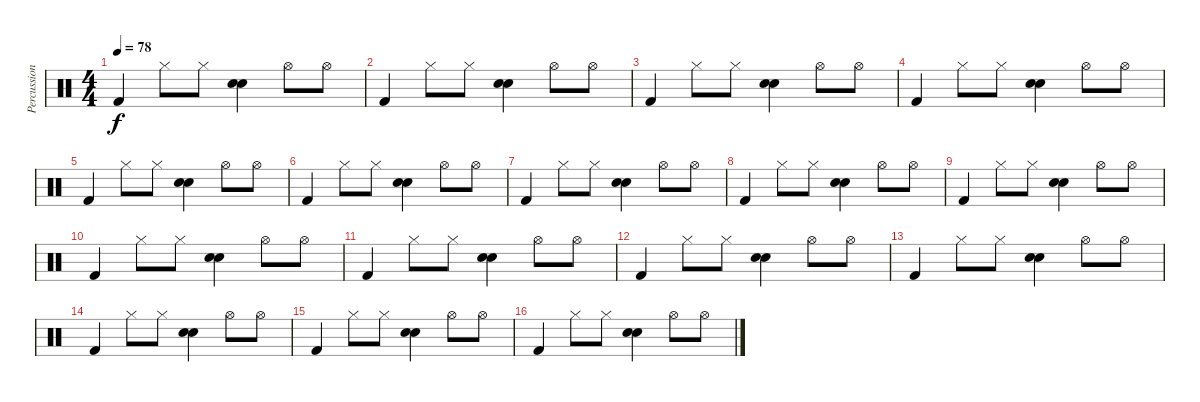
\track ("Percussion" "Percussion") {instrument percussion}
\staff {score}
\articulation defaults
\ts (4 4)
\tempo 78
\clef neutral
\ks c "Kick (hit) 2".4{dy f} "Hi-Hat (closed)".8 "Hi-Hat (closed)".8
("Electric Snare (hit)" "Snare (hit) 2").4 "Hi-Hat (open)".8 "Hi-Hat (open)".8 |
"Kick (hit) 2".4 "Hi-Hat (closed)".8 "Hi-Hat (closed)".8 ("Electric Snare (hit)" "Snare (hit) 2").4 "Hi-Hat (open)".8 "Hi-Hat (open)".8 |
"Kick (hit) 2".4 "Hi-Hat (closed)".8 "Hi-Hat (closed)".8 ("Electric Snare (hit)" "Snare (hit) 2").4 "Hi-Hat (open)".8 "Hi-Hat (open)".8 |
"Kick (hit) 2".4 "Hi-Hat (closed)".8 "Hi-Hat (closed)".8 ("Electric Snare (hit)" "Snare (hit) 2").4 "Hi-Hat (open)".8 "Hi-Hat (open)".8 |
"Kick (hit) 2".4 "Hi-Hat (closed)".8 "Hi-Hat (closed)".8 ("Electric Snare (hit)" "Snare (hit) 2").4 "Hi-Hat (open)".8 "Hi-Hat (open)".8 |
"Kick (hit) 2".4 "Hi-Hat (closed)".8 "Hi-Hat (closed)".8 ("Electric Snare (hit)" "Snare (hit) 2").4 "Hi-Hat (open)".8 "Hi-Hat (open)".8 |
"Kick (hit) 2".4 "Hi-Hat (closed)".8 "Hi-Hat (closed)".8 ("Electric Snare (hit)" "Snare (hit) 2").4 "Hi-Hat (open)".8 "Hi-Hat (open)".8 |
"Kick (hit) 2".4 "Hi-Hat (closed)".8 "Hi-Hat (closed)".8 ("Electric Snare (hit)" "Snare (hit) 2").4 "Hi-Hat (open)".8 "Hi-Hat (open)".8 |
"Kick (hit) 2".4 "Hi-Hat (closed)".8 "Hi-Hat (closed)".8 ("Electric Snare (hit)" "Snare (hit) 2").4 "Hi-Hat (open)".8 "Hi-Hat (open)".8 |
"Kick (hit) 2".4 "Hi-Hat (closed)".8 "Hi-Hat (closed)".8 ("Electric Snare (hit)" "Snare (hit) 2").4 "Hi-Hat (open)".8 "Hi-Hat (open)".8 |
"Kick (hit) 2".4 "Hi-Hat (closed)".8 "Hi-Hat (closed)".8 ("Electric Snare (hit)" "Snare (hit) 2").4 "Hi-Hat (open)".8 "Hi-Hat (open)".8 |
"Kick (hit) 2".4 "Hi-Hat (closed)".8 "Hi-Hat (closed)".8 ("Electric Snare (hit)" "Snare (hit) 2").4 "Hi-Hat (open)".8 "Hi-Hat (open)".8 |
"Kick (hit) 2".4 "Hi-Hat (closed)".8 "Hi-Hat (closed)".8 ("Electric Snare (hit)" "Snare (hit) 2").4 "Hi-Hat (open)".8 "Hi-Hat (open)".8 |
"Kick (hit) 2".4 "Hi-Hat (closed)".8 "Hi-Hat (closed)".8 ("Electric Snare (hit)" "Snare (hit) 2").4 "Hi-Hat (open)".8 "Hi-Hat (open)".8 |
"Kick (hit) 2".4 "Hi-Hat (closed)".8 "Hi-Hat (closed)".8 ("Electric Snare (hit)" "Snare (hit) 2").4 "Hi-Hat (open)".8 "Hi-Hat (open)".8 |
"Kick (hit) 2".4 "Hi-Hat (closed)".8 "Hi-Hat (closed)".8 ("Electric Snare (hit)" "Snare (hit) 2").4 "Hi-Hat (open)".8 "Hi-Hat (open)".8
